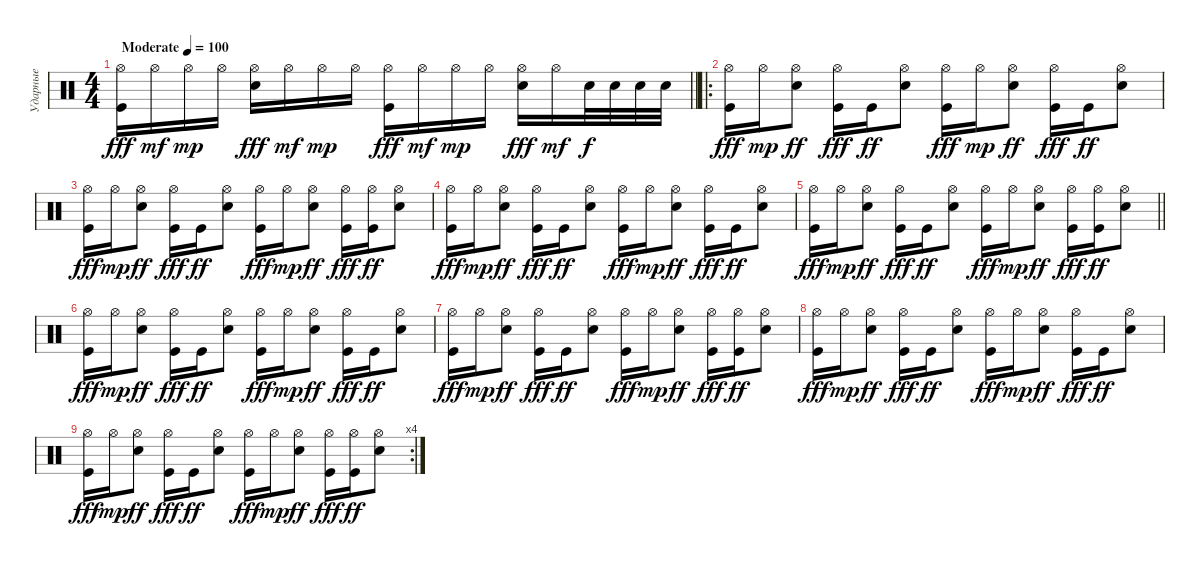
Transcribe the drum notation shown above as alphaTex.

\track ("Ударные" "Ударные") {instrument percussion}
\staff {score}
\articulation defaults
\ts (4 4)
\tempo (100 "Moderate")
\clef neutral
\barLineRight lightlight
\ks c
("Hi-Hat (open)" "Kick (hit)").16{dy fff} "Hi-Hat (open)".16{dy mf} "Hi-Hat (open)".16{dy mp} "Hi-Hat (open)".16 ("Hi-Hat (open)" "Electric Snare (hit)").16{dy fff} "Hi-Hat (open)".16{dy mf} "Hi-Hat (open)".16{dy mp} "Hi-Hat (open)".16 ("Hi-Hat (open)" "Kick (hit)").16{dy fff} "Hi-Hat (open)".16{dy mf} "Hi-Hat (open)".16{dy mp} "Hi-Hat (open)".16 ("Hi-Hat (open)" "Electric Snare (hit)").16{dy fff} "Hi-Hat (open)".16{dy mf} "Electric Snare (hit)".32{dy f} "Electric Snare (hit)".32 "Electric Snare (hit)".32 "Electric Snare (hit)".32 |
\ro
\section ("" "")
("Hi-Hat (open)" "Kick (hit)").16{dy fff} "Hi-Hat (open)".16{dy mp} ("Hi-Hat (open)" "Electric Snare (hit)").8{dy ff} ("Hi-Hat (open)" "Kick (hit)").16{dy fff} "Kick (hit)".16{dy ff} ("Hi-Hat (open)" "Electric Snare (hit)").8 ("Hi-Hat (open)" "Kick (hit)").16{dy fff} "Hi-Hat (open)".16{dy mp} ("Hi-Hat (open)" "Electric Snare (hit)").8{dy ff} ("Hi-Hat (open)" "Kick (hit)").16{dy fff} "Kick (hit)".16{dy ff} ("Hi-Hat (open)" "Electric Snare (hit)").8 |
("Hi-Hat (open)" "Kick (hit)").16{dy fff} "Hi-Hat (open)".16{dy mp} ("Hi-Hat (open)" "Electric Snare (hit)").8{dy ff} ("Hi-Hat (open)" "Kick (hit)").16{dy fff} "Kick (hit)".16{dy ff} ("Hi-Hat (open)" "Electric Snare (hit)").8 ("Hi-Hat (open)" "Kick (hit)").16{dy fff} "Hi-Hat (open)".16{dy mp} ("Hi-Hat (open)" "Electric Snare (hit)").8{dy ff} ("Hi-Hat (open)" "Kick (hit)").16{dy fff} ("Hi-Hat (open)" "Kick (hit)").16{dy ff} ("Hi-Hat (open)" "Electric Snare (hit)").8 |
("Hi-Hat (open)" "Kick (hit)").16{dy fff} "Hi-Hat (open)".16{dy mp} ("Hi-Hat (open)" "Electric Snare (hit)").8{dy ff} ("Hi-Hat (open)" "Kick (hit)").16{dy fff} "Kick (hit)".16{dy ff} ("Hi-Hat (open)" "Electric Snare (hit)").8 ("Hi-Hat (open)" "Kick (hit)").16{dy fff} "Hi-Hat (open)".16{dy mp} ("Hi-Hat (open)" "Electric Snare (hit)").8{dy ff} ("Hi-Hat (open)" "Kick (hit)").16{dy fff} "Kick (hit)".16{dy ff} ("Hi-Hat (open)" "Electric Snare (hit)").8 |
\barLineRight lightlight
("Hi-Hat (open)" "Kick (hit)").16{dy fff} "Hi-Hat (open)".16{dy mp} ("Hi-Hat (open)" "Electric Snare (hit)").8{dy ff} ("Hi-Hat (open)" "Kick (hit)").16{dy fff} "Kick (hit)".16{dy ff} ("Hi-Hat (open)" "Electric Snare (hit)").8 ("Hi-Hat (open)" "Kick (hit)").16{dy fff} "Hi-Hat (open)".16{dy mp} ("Hi-Hat (open)" "Electric Snare (hit)").8{dy ff} ("Hi-Hat (open)" "Kick (hit)").16{dy fff} ("Hi-Hat (open)" "Kick (hit)").16{dy ff} ("Hi-Hat (open)" "Electric Snare (hit)").8 |
\section ("" "")
("Hi-Hat (open)" "Kick (hit)").16{dy fff} "Hi-Hat (open)".16{dy mp} ("Hi-Hat (open)" "Electric Snare (hit)").8{dy ff} ("Hi-Hat (open)" "Kick (hit)").16{dy fff} "Kick (hit)".16{dy ff} ("Hi-Hat (open)" "Electric Snare (hit)").8 ("Hi-Hat (open)" "Kick (hit)").16{dy fff} "Hi-Hat (open)".16{dy mp} ("Hi-Hat (open)" "Electric Snare (hit)").8{dy ff} ("Hi-Hat (open)" "Kick (hit)").16{dy fff} "Kick (hit)".16{dy ff} ("Hi-Hat (open)" "Electric Snare (hit)").8 |
("Hi-Hat (open)" "Kick (hit)").16{dy fff} "Hi-Hat (open)".16{dy mp} ("Hi-Hat (open)" "Electric Snare (hit)").8{dy ff} ("Hi-Hat (open)" "Kick (hit)").16{dy fff} "Kick (hit)".16{dy ff} ("Hi-Hat (open)" "Electric Snare (hit)").8 ("Hi-Hat (open)" "Kick (hit)").16{dy fff} "Hi-Hat (open)".16{dy mp} ("Hi-Hat (open)" "Electric Snare (hit)").8{dy ff} ("Hi-Hat (open)" "Kick (hit)").16{dy fff} ("Hi-Hat (open)" "Kick (hit)").16{dy ff} ("Hi-Hat (open)" "Electric Snare (hit)").8 |
("Hi-Hat (open)" "Kick (hit)").16{dy fff} "Hi-Hat (open)".16{dy mp} ("Hi-Hat (open)" "Electric Snare (hit)").8{dy ff} ("Hi-Hat (open)" "Kick (hit)").16{dy fff} "Kick (hit)".16{dy ff} ("Hi-Hat (open)" "Electric Snare (hit)").8 ("Hi-Hat (open)" "Kick (hit)").16{dy fff} "Hi-Hat (open)".16{dy mp} ("Hi-Hat (open)" "Electric Snare (hit)").8{dy ff} ("Hi-Hat (open)" "Kick (hit)").16{dy fff} "Kick (hit)".16{dy ff} ("Hi-Hat (open)" "Electric Snare (hit)").8 |
\rc 4
("Hi-Hat (open)" "Kick (hit)").16{dy fff} "Hi-Hat (open)".16{dy mp} ("Hi-Hat (open)" "Electric Snare (hit)").8{dy ff} ("Hi-Hat (open)" "Kick (hit)").16{dy fff} "Kick (hit)".16{dy ff} ("Hi-Hat (open)" "Electric Snare (hit)").8 ("Hi-Hat (open)" "Kick (hit)").16{dy fff} "Hi-Hat (open)".16{dy mp} ("Hi-Hat (open)" "Electric Snare (hit)").8{dy ff} ("Hi-Hat (open)" "Kick (hit)").16{dy fff} ("Hi-Hat (open)" "Kick (hit)").16{dy ff} ("Hi-Hat (open)" "Electric Snare (hit)").8
